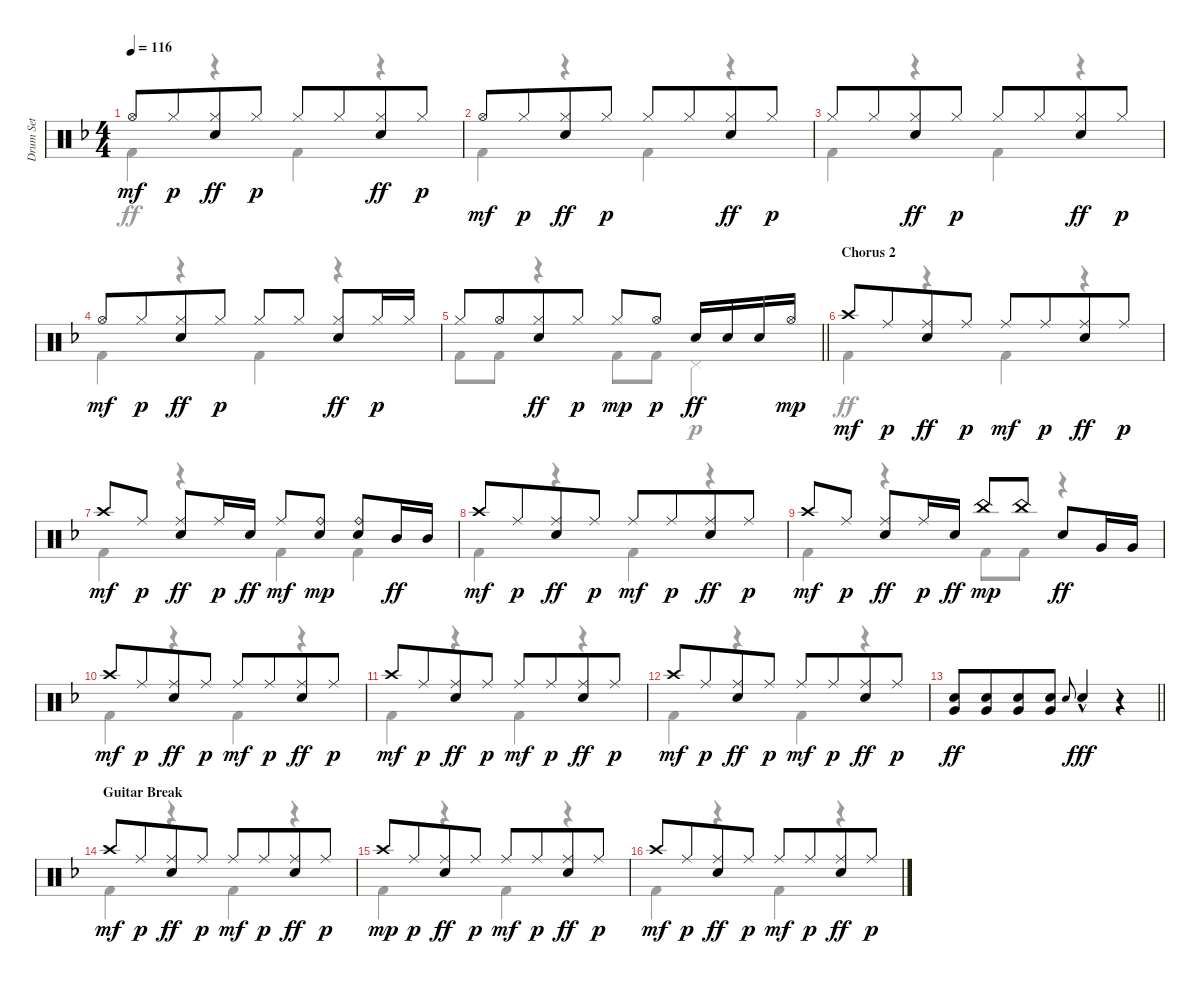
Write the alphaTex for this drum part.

\track ("Drum Set" "Drum Set") {instrument percussion}
\staff {score}
\articulation defaults
\voice
\ts (4 4)
\tempo 116
\clef neutral
\ks f "Hi-Hat (open)".8{dy mf} "Hi-Hat (closed)".8{dy p beam merge}
("Hi-Hat (closed)" "Electric Snare (hit)").8{dy ff} "Hi-Hat (closed)".8{dy p} "Hi-Hat (closed)".8 "Hi-Hat (closed)".8{beam merge} ("Hi-Hat (closed)" "Electric Snare (hit)").8{dy ff} "Hi-Hat (closed)".8{dy p} |
"Hi-Hat (open)".8{dy mf} "Hi-Hat (closed)".8{dy p beam merge} ("Hi-Hat (closed)" "Electric Snare (hit)").8{dy ff} "Hi-Hat (closed)".8{dy p} "Hi-Hat (closed)".8 "Hi-Hat (closed)".8{beam merge} ("Hi-Hat (closed)" "Electric Snare (hit)").8{dy ff} "Hi-Hat (closed)".8{dy p} |
"Hi-Hat (closed)".8 "Hi-Hat (closed)".8{beam merge} ("Hi-Hat (closed)" "Electric Snare (hit)").8{dy ff} "Hi-Hat (closed)".8{dy p} "Hi-Hat (closed)".8 "Hi-Hat (closed)".8{beam merge} ("Hi-Hat (closed)" "Electric Snare (hit)").8{dy ff} "Hi-Hat (closed)".8{dy p} |
"Hi-Hat (open)".8{dy mf} "Hi-Hat (closed)".8{dy p beam merge} ("Hi-Hat (closed)" "Electric Snare (hit)").8{dy ff} "Hi-Hat (closed)".8{dy p} "Hi-Hat (closed)".8 "Hi-Hat (closed)".8{beam split} ("Hi-Hat (closed)" "Electric Snare (hit)").8{dy ff} "Hi-Hat (closed)".16{dy p} "Hi-Hat (closed)".16 |
\barLineRight lightlight "Hi-Hat (closed)".8 "Hi-Hat (open)".8{beam merge}
("Hi-Hat (closed)" "Electric Snare (hit)").8{dy ff} "Hi-Hat (closed)".8{dy p} "Hi-Hat (closed)".8{dy mp} "Hi-Hat (open)".8{dy p} "Electric Snare (hit)".16{dy ff} "Electric Snare (hit)".16 "Electric Snare (hit)".16 "Hi-Hat (open)".16{dy mp} |
\section ("" "Chorus 2")
"Crash high (hit)".8{dy mf} "Ride (middle)".8{dy p beam merge} ("Ride (middle)" "Electric Snare (hit)").8{dy ff} "Ride (middle)".8{dy p} "Ride (middle)".8{dy mf} "Ride (middle)".8{dy p beam merge} ("Ride (middle)" "Electric Snare (hit)").8{dy ff} "Ride (middle)".8{dy p} |
"Crash high (hit)".8{dy mf} "Ride (middle)".8{dy p beam split} ("Ride (middle)" "Electric Snare (hit)").8{dy ff} "Ride (middle)".16{dy p} "Electric Snare (hit)".16{dy ff} "Ride (middle)".8{dy mf} ("Electric Snare (hit)" "Ride (bell)").8{dy mp beam split} ("Electric Snare (hit)" "Ride (bell)").8 "Mid Tom (hit)".16{dy ff} "Mid Tom (hit)".16 |
"Crash high (hit)".8{dy mf} "Ride (middle)".8{dy p beam merge} ("Ride (middle)" "Electric Snare (hit)").8{dy ff} "Ride (middle)".8{dy p} "Ride (middle)".8{dy mf} "Ride (middle)".8{dy p beam merge} ("Ride (middle)" "Electric Snare (hit)").8{dy ff} "Ride (middle)".8{dy p} |
"Crash high (hit)".8{dy mf} "Ride (middle)".8{dy p beam split} ("Ride (middle)" "Electric Snare (hit)").8{dy ff} "Ride (middle)".16{dy p} "Electric Snare (hit)".16{dy ff} "China (hit)".8{dy mp} "China (hit)".8 "Electric Snare (hit)".8{dy ff} "Very Low Tom (hit)".16 "Very Low Tom (hit)".16 |
"Crash high (hit)".8{dy mf} "Ride (middle)".8{dy p beam merge} ("Ride (middle)" "Electric Snare (hit)").8{dy ff} "Ride (middle)".8{dy p} "Ride (middle)".8{dy mf} "Ride (middle)".8{dy p beam merge} ("Ride (middle)" "Electric Snare (hit)").8{dy ff} "Ride (middle)".8{dy p} |
"Crash high (hit)".8{dy mf} "Ride (middle)".8{dy p beam merge} ("Ride (middle)" "Electric Snare (hit)").8{dy ff} "Ride (middle)".8{dy p} "Ride (middle)".8{dy mf} "Ride (middle)".8{dy p beam merge} ("Ride (middle)" "Electric Snare (hit)").8{dy ff} "Ride (middle)".8{dy p} |
"Crash high (hit)".8{dy mf} "Ride (middle)".8{dy p beam merge} ("Ride (middle)" "Electric Snare (hit)").8{dy ff} "Ride (middle)".8{dy p} "Ride (middle)".8{dy mf} "Ride (middle)".8{dy p beam merge} ("Ride (middle)" "Electric Snare (hit)").8{dy ff} "Ride (middle)".8{dy p} |
\barLineRight lightlight
("Electric Snare (hit)" "Very Low Tom (hit)").8{dy ff beam Up} ("Electric Snare (hit)" "Very Low Tom (hit)").8{beam Up beam merge} ("Electric Snare (hit)" "Very Low Tom (hit)").8{beam Up} ("Electric Snare (hit)" "Very Low Tom (hit)").8{beam Up} "Electric Snare (hit)".8{gr onbeat} "Electric Snare (hit)"{hac}.4{dy fff beam Up} r.4{beam Up} |
\section ("" "Guitar Break")
"Crash high (hit)".8{dy mf} "Ride (middle)".8{dy p beam merge} ("Ride (middle)" "Electric Snare (hit)").8{dy ff} "Ride (middle)".8{dy p} "Ride (middle)".8{dy mf} "Ride (middle)".8{dy p beam merge} ("Ride (middle)" "Electric Snare (hit)").8{dy ff} "Ride (middle)".8{dy p} |
"Crash high (hit)".8{dy mp} "Ride (middle)".8{dy p beam merge} ("Ride (middle)" "Electric Snare (hit)").8{dy ff} "Ride (middle)".8{dy p} "Ride (middle)".8{dy mf} "Ride (middle)".8{dy p beam merge} ("Ride (middle)" "Electric Snare (hit)").8{dy ff} "Ride (middle)".8{dy p} |
"Crash high (hit)".8{dy mf} "Ride (middle)".8{dy p beam merge} ("Ride (middle)" "Electric Snare (hit)").8{dy ff} "Ride (middle)".8{dy p} "Ride (middle)".8{dy mf} "Ride (middle)".8{dy p beam merge} ("Ride (middle)" "Electric Snare (hit)").8{dy ff} "Ride (middle)".8{dy p}
\voice
\clef neutral
\ottava regular
\simile none
\ks f "Kick (hit) 2".4{dy ff}
r.4 "Kick (hit) 2".4 r.4 |
"Kick (hit) 2".4 r.4 "Kick (hit) 2".4 r.4 |
"Kick (hit) 2".4 r.4 "Kick (hit) 2".4 r.4 |
"Kick (hit) 2".4 r.4 "Kick (hit) 2".4 r.4 |
\barLineRight lightlight "Kick (hit) 2".8 "Kick (hit) 2".8
r.4 "Kick (hit) 2".8 "Kick (hit) 2".8 "Pedal Hi-Hat (hit)".4{dy p} |
"Kick (hit) 2".4{dy ff} r.4 "Kick (hit) 2".4 r.4 |
"Kick (hit) 2".4 r.4 "Kick (hit) 2".4 "Kick (hit) 2".4 |
"Kick (hit) 2".4 r.4 "Kick (hit) 2".4 r.4 |
"Kick (hit) 2".4 r.4 "Kick (hit) 2".8 "Kick (hit) 2".8 r.4 |
"Kick (hit) 2".4 r.4 "Kick (hit) 2".4 r.4 |
"Kick (hit) 2".4 r.4 "Kick (hit) 2".4 r.4 |
"Kick (hit) 2".4 r.4 "Kick (hit) 2".4 r.4 |
\barLineRight lightlight
|
"Kick (hit) 2".4 r.4 "Kick (hit) 2".4 r.4 |
"Kick (hit) 2".4 r.4 "Kick (hit) 2".4 r.4 |
"Kick (hit) 2".4 r.4 "Kick (hit) 2".4 r.4
